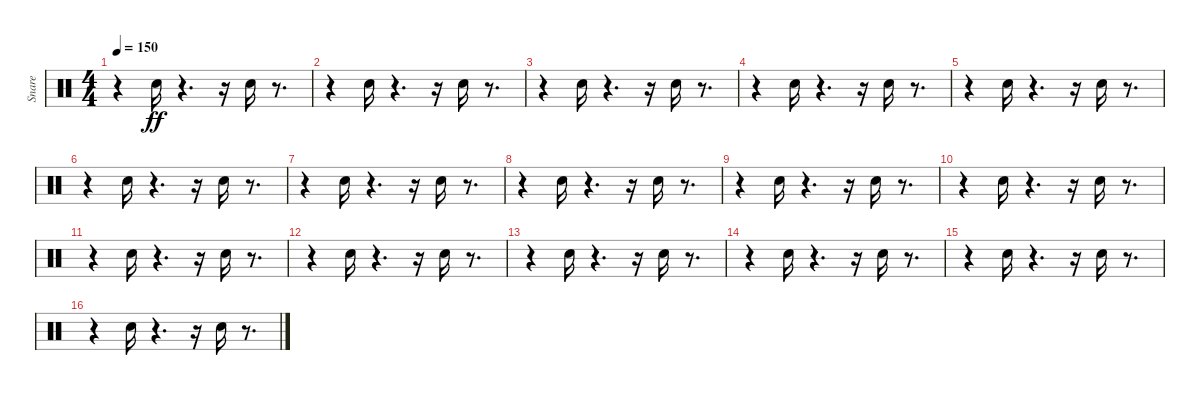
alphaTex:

\track ("Snare" "Snare") {instrument percussion}
\staff {score}
\articulation defaults
\ts (4 4)
\tempo 150
\clef neutral
\ks c
r.4{dy ff} "Electric Snare (hit)".16 r.4{d} r.16 "Electric Snare (hit)".16 r.8{d} |
r.4 "Electric Snare (hit)".16 r.4{d} r.16 "Electric Snare (hit)".16 r.8{d} |
r.4 "Electric Snare (hit)".16 r.4{d} r.16 "Electric Snare (hit)".16 r.8{d} |
r.4 "Electric Snare (hit)".16 r.4{d} r.16 "Electric Snare (hit)".16 r.8{d} |
r.4 "Electric Snare (hit)".16 r.4{d} r.16 "Electric Snare (hit)".16 r.8{d} |
r.4 "Electric Snare (hit)".16 r.4{d} r.16 "Electric Snare (hit)".16 r.8{d} |
r.4 "Electric Snare (hit)".16 r.4{d} r.16 "Electric Snare (hit)".16 r.8{d} |
r.4 "Electric Snare (hit)".16 r.4{d} r.16 "Electric Snare (hit)".16 r.8{d} |
r.4 "Electric Snare (hit)".16 r.4{d} r.16 "Electric Snare (hit)".16 r.8{d} |
r.4 "Electric Snare (hit)".16 r.4{d} r.16 "Electric Snare (hit)".16 r.8{d} |
r.4 "Electric Snare (hit)".16 r.4{d} r.16 "Electric Snare (hit)".16 r.8{d} |
r.4 "Electric Snare (hit)".16 r.4{d} r.16 "Electric Snare (hit)".16 r.8{d} |
r.4 "Electric Snare (hit)".16 r.4{d} r.16 "Electric Snare (hit)".16 r.8{d} |
r.4 "Electric Snare (hit)".16 r.4{d} r.16 "Electric Snare (hit)".16 r.8{d} |
r.4 "Electric Snare (hit)".16 r.4{d} r.16 "Electric Snare (hit)".16 r.8{d} |
r.4 "Electric Snare (hit)".16 r.4{d} r.16 "Electric Snare (hit)".16 r.8{d}
